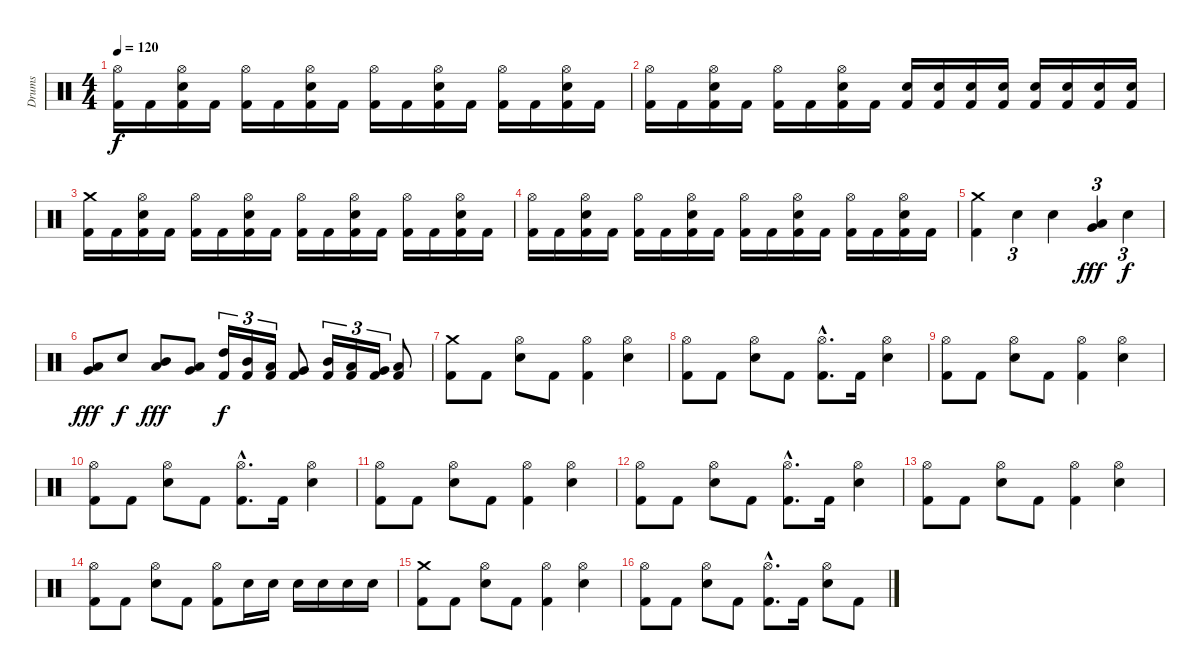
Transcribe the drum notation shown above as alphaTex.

\track ("Drums" "Drums") {instrument percussion}
\staff {score}
\articulation defaults
\ts (4 4)
\tempo 120
\clef neutral
\ks c
("Kick (hit) 2" "Hi-Hat (open)").16{dy f} "Kick (hit) 2".16 ("Kick (hit) 2" "Electric Snare (hit)" "Hi-Hat (open)").16 "Kick (hit) 2".16 ("Kick (hit) 2" "Hi-Hat (open)").16 "Kick (hit) 2".16 ("Kick (hit) 2" "Electric Snare (hit)" "Hi-Hat (open)").16 "Kick (hit) 2".16 ("Kick (hit) 2" "Hi-Hat (open)").16 "Kick (hit) 2".16 ("Kick (hit) 2" "Electric Snare (hit)" "Hi-Hat (open)").16 "Kick (hit) 2".16 ("Kick (hit) 2" "Hi-Hat (open)").16 "Kick (hit) 2".16 ("Kick (hit) 2" "Electric Snare (hit)" "Hi-Hat (open)").16 "Kick (hit) 2".16 |
("Kick (hit) 2" "Hi-Hat (open)").16 "Kick (hit) 2".16 ("Kick (hit) 2" "Electric Snare (hit)" "Hi-Hat (open)").16 "Kick (hit) 2".16 ("Kick (hit) 2" "Hi-Hat (open)").16 "Kick (hit) 2".16 ("Kick (hit) 2" "Electric Snare (hit)" "Hi-Hat (open)").16 "Kick (hit) 2".16 ("Kick (hit) 2" "Electric Snare (hit)").16 ("Kick (hit) 2" "Electric Snare (hit)").16 ("Kick (hit) 2" "Electric Snare (hit)").16 ("Kick (hit) 2" "Electric Snare (hit)").16 ("Kick (hit) 2" "Electric Snare (hit)").16 ("Kick (hit) 2" "Electric Snare (hit)").16 ("Kick (hit) 2" "Electric Snare (hit)").16 ("Kick (hit) 2" "Electric Snare (hit)").16 |
("Kick (hit) 2" "Crash medium (hit)").16 "Kick (hit) 2".16 ("Kick (hit) 2" "Electric Snare (hit)" "Hi-Hat (open)").16 "Kick (hit) 2".16 ("Kick (hit) 2" "Hi-Hat (open)").16 "Kick (hit) 2".16 ("Kick (hit) 2" "Electric Snare (hit)" "Hi-Hat (open)").16 "Kick (hit) 2".16 ("Kick (hit) 2" "Hi-Hat (open)").16 "Kick (hit) 2".16 ("Kick (hit) 2" "Electric Snare (hit)" "Hi-Hat (open)").16 "Kick (hit) 2".16 ("Kick (hit) 2" "Hi-Hat (open)").16 "Kick (hit) 2".16 ("Kick (hit) 2" "Electric Snare (hit)" "Hi-Hat (open)").16 "Kick (hit) 2".16 |
("Kick (hit) 2" "Hi-Hat (open)").16 "Kick (hit) 2".16 ("Kick (hit) 2" "Electric Snare (hit)" "Hi-Hat (open)").16 "Kick (hit) 2".16 ("Kick (hit) 2" "Hi-Hat (open)").16 "Kick (hit) 2".16 ("Kick (hit) 2" "Electric Snare (hit)" "Hi-Hat (open)").16 "Kick (hit) 2".16 ("Kick (hit) 2" "Hi-Hat (open)").16 "Kick (hit) 2".16 ("Kick (hit) 2" "Electric Snare (hit)" "Hi-Hat (open)").16 "Kick (hit) 2".16 ("Kick (hit) 2" "Hi-Hat (open)").16 "Kick (hit) 2".16 ("Kick (hit) 2" "Electric Snare (hit)" "Hi-Hat (open)").16 "Kick (hit) 2".16 |
("Kick (hit) 2" "Crash medium (hit)").4 "Electric Snare (hit)".4{tu (3 2)} "Electric Snare (hit)".4 ("Low Tom (hit)" "Very Low Tom (hit)").4{tu (3 2) dy fff} "Electric Snare (hit)".4{tu (3 2) dy f} |
("Low Tom (hit)" "Very Low Tom (hit)").8{dy fff} "Electric Snare (hit)".8{dy f} ("Mid Tom (hit)" "Low Tom (hit)").8{dy fff} ("Very Low Tom (hit)" "Low Floor Tom (hit)").8 ("Kick (hit) 2" "High Tom (hit)").16{tu (3 2) dy f} ("Kick (hit) 2" "Mid Tom (hit)").16{tu (3 2)} ("Kick (hit) 2" "Low Tom (hit)").16{tu (3 2)} ("Kick (hit) 2" "Very Low Tom (hit)").8 ("Kick (hit) 2" "Mid Tom (hit)").16{tu (3 2)} ("Kick (hit) 2" "Low Tom (hit)").16{tu (3 2)} ("Kick (hit) 2" "Very Low Tom (hit)").16{tu (3 2)} ("Kick (hit) 2" "Low Floor Tom (hit)").8 |
("Kick (hit) 2" "Crash medium (hit)").8 "Kick (hit) 2".8 ("Electric Snare (hit)" "Hi-Hat (open)").8 "Kick (hit) 2".8 ("Kick (hit) 2" "Hi-Hat (open)").4 ("Electric Snare (hit)" "Hi-Hat (open)").4 |
("Kick (hit) 2" "Hi-Hat (open)").8 "Kick (hit) 2".8 ("Electric Snare (hit)" "Hi-Hat (open)").8 "Kick (hit) 2".8 ("Kick (hit) 2"{hac} "Hi-Hat (open)"{hac}).8{d} "Kick (hit) 2".16 ("Electric Snare (hit)" "Hi-Hat (open)").4 |
("Kick (hit) 2" "Hi-Hat (open)").8 "Kick (hit) 2".8 ("Electric Snare (hit)" "Hi-Hat (open)").8 "Kick (hit) 2".8 ("Kick (hit) 2" "Hi-Hat (open)").4 ("Electric Snare (hit)" "Hi-Hat (open)").4 |
("Kick (hit) 2" "Hi-Hat (open)").8 "Kick (hit) 2".8 ("Electric Snare (hit)" "Hi-Hat (open)").8 "Kick (hit) 2".8 ("Kick (hit) 2"{hac} "Hi-Hat (open)"{hac}).8{d} "Kick (hit) 2".16 ("Electric Snare (hit)" "Hi-Hat (open)").4 |
("Kick (hit) 2" "Hi-Hat (open)").8 "Kick (hit) 2".8 ("Electric Snare (hit)" "Hi-Hat (open)").8 "Kick (hit) 2".8 ("Kick (hit) 2" "Hi-Hat (open)").4 ("Electric Snare (hit)" "Hi-Hat (open)").4 |
("Kick (hit) 2" "Hi-Hat (open)").8 "Kick (hit) 2".8 ("Electric Snare (hit)" "Hi-Hat (open)").8 "Kick (hit) 2".8 ("Kick (hit) 2"{hac} "Hi-Hat (open)"{hac}).8{d} "Kick (hit) 2".16 ("Electric Snare (hit)" "Hi-Hat (open)").4 |
("Kick (hit) 2" "Hi-Hat (open)").8 "Kick (hit) 2".8 ("Electric Snare (hit)" "Hi-Hat (open)").8 "Kick (hit) 2".8 ("Kick (hit) 2" "Hi-Hat (open)").4 ("Electric Snare (hit)" "Hi-Hat (open)").4 |
("Kick (hit) 2" "Hi-Hat (open)").8 "Kick (hit) 2".8 ("Electric Snare (hit)" "Hi-Hat (open)").8 "Kick (hit) 2".8 ("Kick (hit) 2" "Hi-Hat (open)").8 "Electric Snare (hit)".16 "Electric Snare (hit)".16 "Electric Snare (hit)".16 "Electric Snare (hit)".16 "Electric Snare (hit)".16 "Electric Snare (hit)".16 |
("Kick (hit) 2" "Crash medium (hit)").8 "Kick (hit) 2".8 ("Electric Snare (hit)" "Hi-Hat (open)").8 "Kick (hit) 2".8 ("Kick (hit) 2" "Hi-Hat (open)").4 ("Electric Snare (hit)" "Hi-Hat (open)").4 |
("Kick (hit) 2" "Hi-Hat (open)").8 "Kick (hit) 2".8 ("Electric Snare (hit)" "Hi-Hat (open)").8 "Kick (hit) 2".8 ("Kick (hit) 2"{hac} "Hi-Hat (open)"{hac}).8{d} "Kick (hit) 2".16 ("Electric Snare (hit)" "Hi-Hat (open)").8 "Kick (hit) 2".8
